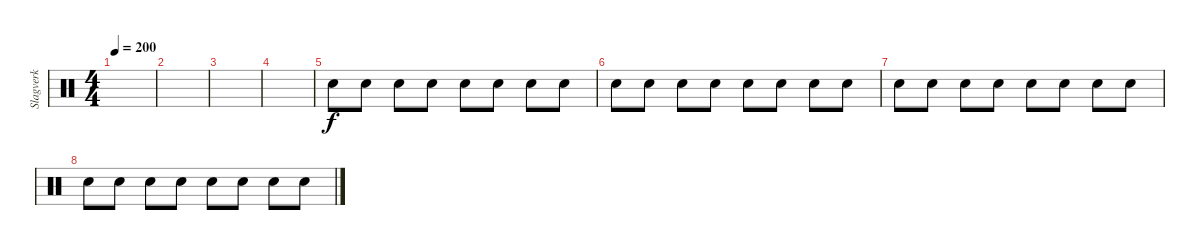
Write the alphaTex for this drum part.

\track ("Slagverk" "Slagverk") {instrument percussion}
\staff {score}
\articulation defaults
\ts (4 4)
\tempo 200
\clef neutral
\ks c
|
|
|
|
"Hand Clap (hit)".8 "Hand Clap (hit)".8 "Hand Clap (hit)".8 "Hand Clap (hit)".8 "Hand Clap (hit)".8 "Hand Clap (hit)".8 "Hand Clap (hit)".8 "Hand Clap (hit)".8 |
"Hand Clap (hit)".8 "Hand Clap (hit)".8 "Hand Clap (hit)".8 "Hand Clap (hit)".8 "Hand Clap (hit)".8 "Hand Clap (hit)".8 "Hand Clap (hit)".8 "Hand Clap (hit)".8 |
"Hand Clap (hit)".8 "Hand Clap (hit)".8 "Hand Clap (hit)".8 "Hand Clap (hit)".8 "Hand Clap (hit)".8 "Hand Clap (hit)".8 "Hand Clap (hit)".8 "Hand Clap (hit)".8 |
"Hand Clap (hit)".8 "Hand Clap (hit)".8 "Hand Clap (hit)".8 "Hand Clap (hit)".8 "Hand Clap (hit)".8 "Hand Clap (hit)".8 "Hand Clap (hit)".8 "Hand Clap (hit)".8
